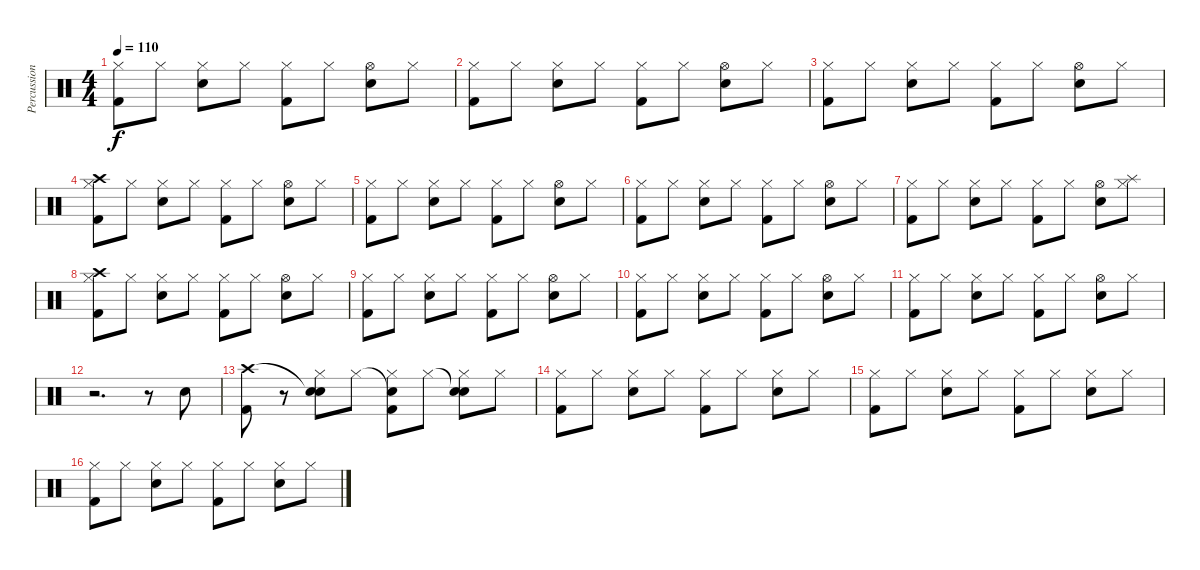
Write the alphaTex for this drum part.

\track ("Percussion" "Percussion") {instrument percussion}
\staff {score}
\articulation defaults
\ts (4 4)
\tempo 110
\clef neutral
\ks c
("Hi-Hat (closed)" "Kick (hit) 2").8{dy f} "Hi-Hat (closed)".8 ("Snare (hit) 2" "Hi-Hat (closed)").8 "Hi-Hat (closed)".8 ("Hi-Hat (closed)" "Kick (hit) 2").8 "Hi-Hat (closed)".8 ("Snare (hit) 2" "Hi-Hat (open)").8 "Hi-Hat (closed)".8 |
("Hi-Hat (closed)" "Kick (hit) 2").8 "Hi-Hat (closed)".8 ("Snare (hit) 2" "Hi-Hat (closed)").8 "Hi-Hat (closed)".8 ("Hi-Hat (closed)" "Kick (hit) 2").8 "Hi-Hat (closed)".8 ("Snare (hit) 2" "Hi-Hat (open)").8 "Hi-Hat (closed)".8 |
("Hi-Hat (closed)" "Kick (hit) 2").8 "Hi-Hat (closed)".8 ("Snare (hit) 2" "Hi-Hat (closed)").8 "Hi-Hat (closed)".8 ("Hi-Hat (closed)" "Kick (hit) 2").8 "Hi-Hat (closed)".8 ("Snare (hit) 2" "Hi-Hat (open)").8 "Hi-Hat (closed)".8 |
("Crash high (hit)" "Hi-Hat (closed)" "Kick (hit) 2").8 "Hi-Hat (closed)".8 ("Snare (hit) 2" "Hi-Hat (closed)").8 "Hi-Hat (closed)".8 ("Hi-Hat (closed)" "Kick (hit) 2").8 "Hi-Hat (closed)".8 ("Snare (hit) 2" "Hi-Hat (open)").8 "Hi-Hat (closed)".8 |
("Hi-Hat (closed)" "Kick (hit) 2").8 "Hi-Hat (closed)".8 ("Snare (hit) 2" "Hi-Hat (closed)").8 "Hi-Hat (closed)".8 ("Hi-Hat (closed)" "Kick (hit) 2").8 "Hi-Hat (closed)".8 ("Snare (hit) 2" "Hi-Hat (open)").8 "Hi-Hat (closed)".8 |
("Hi-Hat (closed)" "Kick (hit) 2").8 "Hi-Hat (closed)".8 ("Snare (hit) 2" "Hi-Hat (closed)").8 "Hi-Hat (closed)".8 ("Hi-Hat (closed)" "Kick (hit) 2").8 "Hi-Hat (closed)".8 ("Snare (hit) 2" "Hi-Hat (open)").8 "Hi-Hat (closed)".8 |
("Hi-Hat (closed)" "Kick (hit) 2").8 "Hi-Hat (closed)".8 ("Snare (hit) 2" "Hi-Hat (closed)").8 "Hi-Hat (closed)".8 ("Hi-Hat (closed)" "Kick (hit) 2").8 "Hi-Hat (closed)".8 ("Snare (hit) 2" "Hi-Hat (open)").8 ("Splash (hit)" "Hi-Hat (closed)").8 |
("Crash high (hit)" "Hi-Hat (closed)" "Kick (hit) 2").8 "Hi-Hat (closed)".8 ("Snare (hit) 2" "Hi-Hat (closed)").8 "Hi-Hat (closed)".8 ("Hi-Hat (closed)" "Kick (hit) 2").8 "Hi-Hat (closed)".8 ("Snare (hit) 2" "Hi-Hat (open)").8 "Hi-Hat (closed)".8 |
("Hi-Hat (closed)" "Kick (hit) 2").8 "Hi-Hat (closed)".8 ("Snare (hit) 2" "Hi-Hat (closed)").8 "Hi-Hat (closed)".8 ("Hi-Hat (closed)" "Kick (hit) 2").8 "Hi-Hat (closed)".8 ("Snare (hit) 2" "Hi-Hat (open)").8 "Hi-Hat (closed)".8 |
("Hi-Hat (closed)" "Kick (hit) 2").8 "Hi-Hat (closed)".8 ("Snare (hit) 2" "Hi-Hat (closed)").8 "Hi-Hat (closed)".8 ("Hi-Hat (closed)" "Kick (hit) 2").8 "Hi-Hat (closed)".8 ("Snare (hit) 2" "Hi-Hat (open)").8 "Hi-Hat (closed)".8 |
("Hi-Hat (closed)" "Kick (hit) 2").8 "Hi-Hat (closed)".8 ("Snare (hit) 2" "Hi-Hat (closed)").8 "Hi-Hat (closed)".8 ("Hi-Hat (closed)" "Kick (hit) 2").8 "Hi-Hat (closed)".8 ("Snare (hit) 2" "Hi-Hat (open)").8 "Hi-Hat (closed)".8 |
r.2{d} r.8 "Snare (hit) 2".8 |
("Crash high (hit)" "Kick (hit) 2").8 r.8 ("Snare (hit)"{t} "Snare (hit) 2" "Hi-Hat (closed)").8 "Hi-Hat (closed)".8 ("Snare (hit)"{t} "Hi-Hat (closed)" "Kick (hit) 2").8 "Hi-Hat (closed)".8 ("Snare (hit)"{t} "Snare (hit) 2" "Hi-Hat (closed)").8 "Hi-Hat (closed)".8 |
("Hi-Hat (closed)" "Kick (hit) 2").8 "Hi-Hat (closed)".8 ("Snare (hit) 2" "Hi-Hat (closed)").8 "Hi-Hat (closed)".8 ("Hi-Hat (closed)" "Kick (hit) 2").8 "Hi-Hat (closed)".8 ("Snare (hit) 2" "Hi-Hat (closed)").8 "Hi-Hat (closed)".8 |
("Hi-Hat (closed)" "Kick (hit) 2").8 "Hi-Hat (closed)".8 ("Snare (hit) 2" "Hi-Hat (closed)").8 "Hi-Hat (closed)".8 ("Hi-Hat (closed)" "Kick (hit) 2").8 "Hi-Hat (closed)".8 ("Snare (hit) 2" "Hi-Hat (closed)").8 "Hi-Hat (closed)".8 |
("Hi-Hat (closed)" "Kick (hit) 2").8 "Hi-Hat (closed)".8 ("Snare (hit) 2" "Hi-Hat (closed)").8 "Hi-Hat (closed)".8 ("Hi-Hat (closed)" "Kick (hit) 2").8 "Hi-Hat (closed)".8 ("Snare (hit) 2" "Hi-Hat (closed)").8 "Hi-Hat (closed)".8
